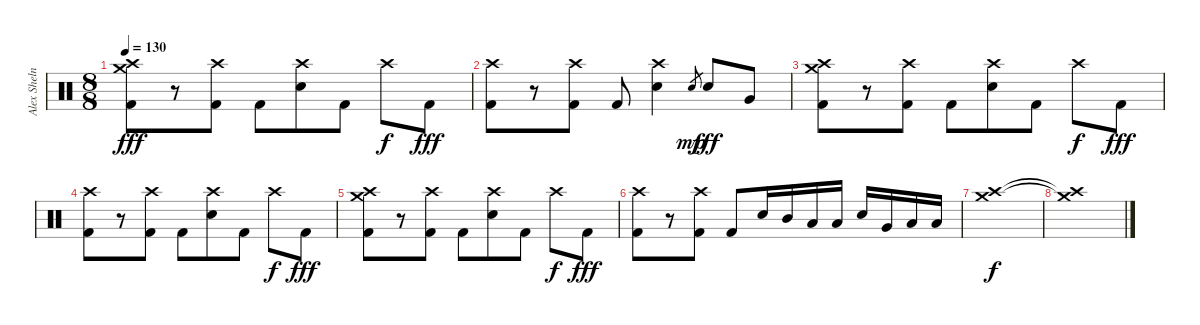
\track ("Alex Shelnutt" "Alex Sheln") {instrument percussion}
\staff {score}
\articulation defaults
\ts (8 8)
\tempo 130
\clef neutral
\ks c
("Crash high (hit)" "Crash medium (hit)" "Kick (hit) 2").8{dy fff} r.8 ("Crash high (hit)" "Kick (hit) 2").8 "Kick (hit) 2".8 ("Crash high (hit)" "Electric Snare (hit)").8 "Kick (hit) 2".8 "Crash high (hit)".8{dy f} "Kick (hit) 2".8{dy fff} |
("Crash high (hit)" "Kick (hit) 2").8 r.8 ("Crash high (hit)" "Kick (hit) 2").8 "Kick (hit) 2".8 ("Crash high (hit)" "Electric Snare (hit)").4 "Electric Snare (hit)".8{gr dy mp} "Electric Snare (hit)".8{dy fff} "Very Low Tom (hit)".8 |
("Crash high (hit)" "Crash medium (hit)" "Kick (hit) 2").8 r.8 ("Crash high (hit)" "Kick (hit) 2").8 "Kick (hit) 2".8 ("Crash high (hit)" "Electric Snare (hit)").8 "Kick (hit) 2".8 "Crash high (hit)".8{dy f} "Kick (hit) 2".8{dy fff} |
("Crash high (hit)" "Kick (hit) 2").8 r.8 ("Crash high (hit)" "Kick (hit) 2").8 "Kick (hit) 2".8 ("Crash high (hit)" "Electric Snare (hit)").8 "Kick (hit) 2".8 "Crash high (hit)".8{dy f} "Kick (hit) 2".8{dy fff} |
("Crash high (hit)" "Crash medium (hit)" "Kick (hit) 2").8 r.8 ("Crash high (hit)" "Kick (hit) 2").8 "Kick (hit) 2".8 ("Crash high (hit)" "Electric Snare (hit)").8 "Kick (hit) 2".8 "Crash high (hit)".8{dy f} "Kick (hit) 2".8{dy fff} |
("Crash high (hit)" "Kick (hit) 2").8 r.8 ("Crash high (hit)" "Kick (hit) 2").8 "Kick (hit) 2".8 "Electric Snare (hit)".16 "Mid Tom (hit)".16 "Low Tom (hit)".16 "Low Tom (hit)".16 "Electric Snare (hit)".16 "Very Low Tom (hit)".16 "Low Floor Tom (hit)".16 "Low Floor Tom (hit)".16 |
("Crash high (hit)" "Crash medium (hit)").1{dy f} |
("Crash high (hit)"{t} "Crash medium (hit)"{t}).1
